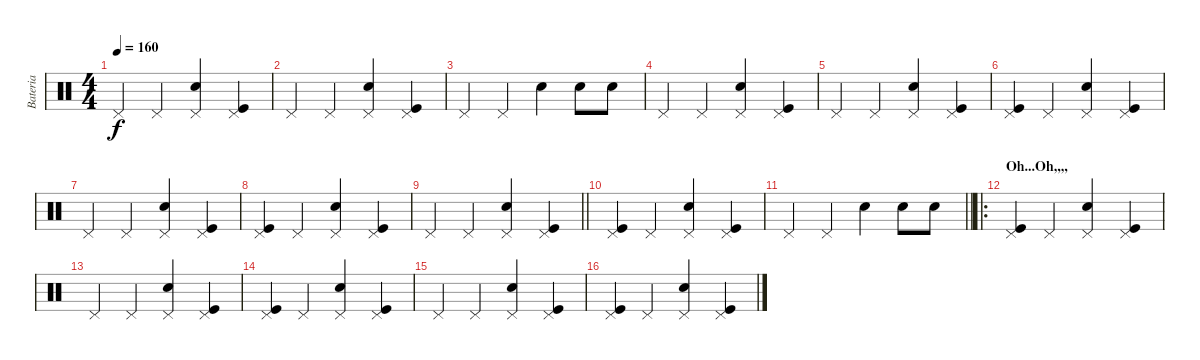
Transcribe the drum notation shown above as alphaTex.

\track ("Bateria" "Bateria") {instrument percussion}
\staff {score}
\articulation defaults
\ts (4 4)
\tempo 160
\clef neutral
\ks c "Pedal Hi-Hat (hit)".4{dy f} "Pedal Hi-Hat (hit)".4
("Snare (hit) 2" "Pedal Hi-Hat (hit)").4 ("Kick (hit)" "Pedal Hi-Hat (hit)").4 |
"Pedal Hi-Hat (hit)".4 "Pedal Hi-Hat (hit)".4 ("Snare (hit) 2" "Pedal Hi-Hat (hit)").4 ("Kick (hit)" "Pedal Hi-Hat (hit)").4 |
"Pedal Hi-Hat (hit)".4 "Pedal Hi-Hat (hit)".4 "Snare (hit) 2".4 "Snare (hit) 2".8 "Snare (hit) 2".8 |
"Pedal Hi-Hat (hit)".4 "Pedal Hi-Hat (hit)".4 ("Snare (hit) 2" "Pedal Hi-Hat (hit)").4 ("Kick (hit)" "Pedal Hi-Hat (hit)").4 |
"Pedal Hi-Hat (hit)".4 "Pedal Hi-Hat (hit)".4 ("Snare (hit) 2" "Pedal Hi-Hat (hit)").4 ("Kick (hit)" "Pedal Hi-Hat (hit)").4 |
("Kick (hit)" "Pedal Hi-Hat (hit)").4 "Pedal Hi-Hat (hit)".4 ("Snare (hit) 2" "Pedal Hi-Hat (hit)").4 ("Kick (hit)" "Pedal Hi-Hat (hit)").4 |
"Pedal Hi-Hat (hit)".4 "Pedal Hi-Hat (hit)".4 ("Snare (hit) 2" "Pedal Hi-Hat (hit)").4 ("Kick (hit)" "Pedal Hi-Hat (hit)").4 |
("Kick (hit)" "Pedal Hi-Hat (hit)").4 "Pedal Hi-Hat (hit)".4 ("Snare (hit) 2" "Pedal Hi-Hat (hit)").4 ("Kick (hit)" "Pedal Hi-Hat (hit)").4 |
\barLineRight lightlight "Pedal Hi-Hat (hit)".4 "Pedal Hi-Hat (hit)".4
("Snare (hit) 2" "Pedal Hi-Hat (hit)").4 ("Kick (hit)" "Pedal Hi-Hat (hit)").4 |
("Kick (hit)" "Pedal Hi-Hat (hit)").4 "Pedal Hi-Hat (hit)".4 ("Snare (hit) 2" "Pedal Hi-Hat (hit)").4 ("Kick (hit)" "Pedal Hi-Hat (hit)").4 |
\barLineRight lightlight "Pedal Hi-Hat (hit)".4 "Pedal Hi-Hat (hit)".4 "Snare (hit) 2".4 "Snare (hit) 2".8 "Snare (hit) 2".8
|
\ro
\section ("" "Oh...Oh,,,,")
("Kick (hit)" "Pedal Hi-Hat (hit)").4 "Pedal Hi-Hat (hit)".4 ("Snare (hit) 2" "Pedal Hi-Hat (hit)").4 ("Kick (hit)" "Pedal Hi-Hat (hit)").4 |
"Pedal Hi-Hat (hit)".4 "Pedal Hi-Hat (hit)".4 ("Snare (hit) 2" "Pedal Hi-Hat (hit)").4 ("Kick (hit)" "Pedal Hi-Hat (hit)").4 |
("Kick (hit)" "Pedal Hi-Hat (hit)").4 "Pedal Hi-Hat (hit)".4 ("Snare (hit) 2" "Pedal Hi-Hat (hit)").4 ("Kick (hit)" "Pedal Hi-Hat (hit)").4 |
"Pedal Hi-Hat (hit)".4 "Pedal Hi-Hat (hit)".4 ("Snare (hit) 2" "Pedal Hi-Hat (hit)").4 ("Kick (hit)" "Pedal Hi-Hat (hit)").4 |
("Kick (hit)" "Pedal Hi-Hat (hit)").4 "Pedal Hi-Hat (hit)".4 ("Snare (hit) 2" "Pedal Hi-Hat (hit)").4 ("Kick (hit)" "Pedal Hi-Hat (hit)").4
